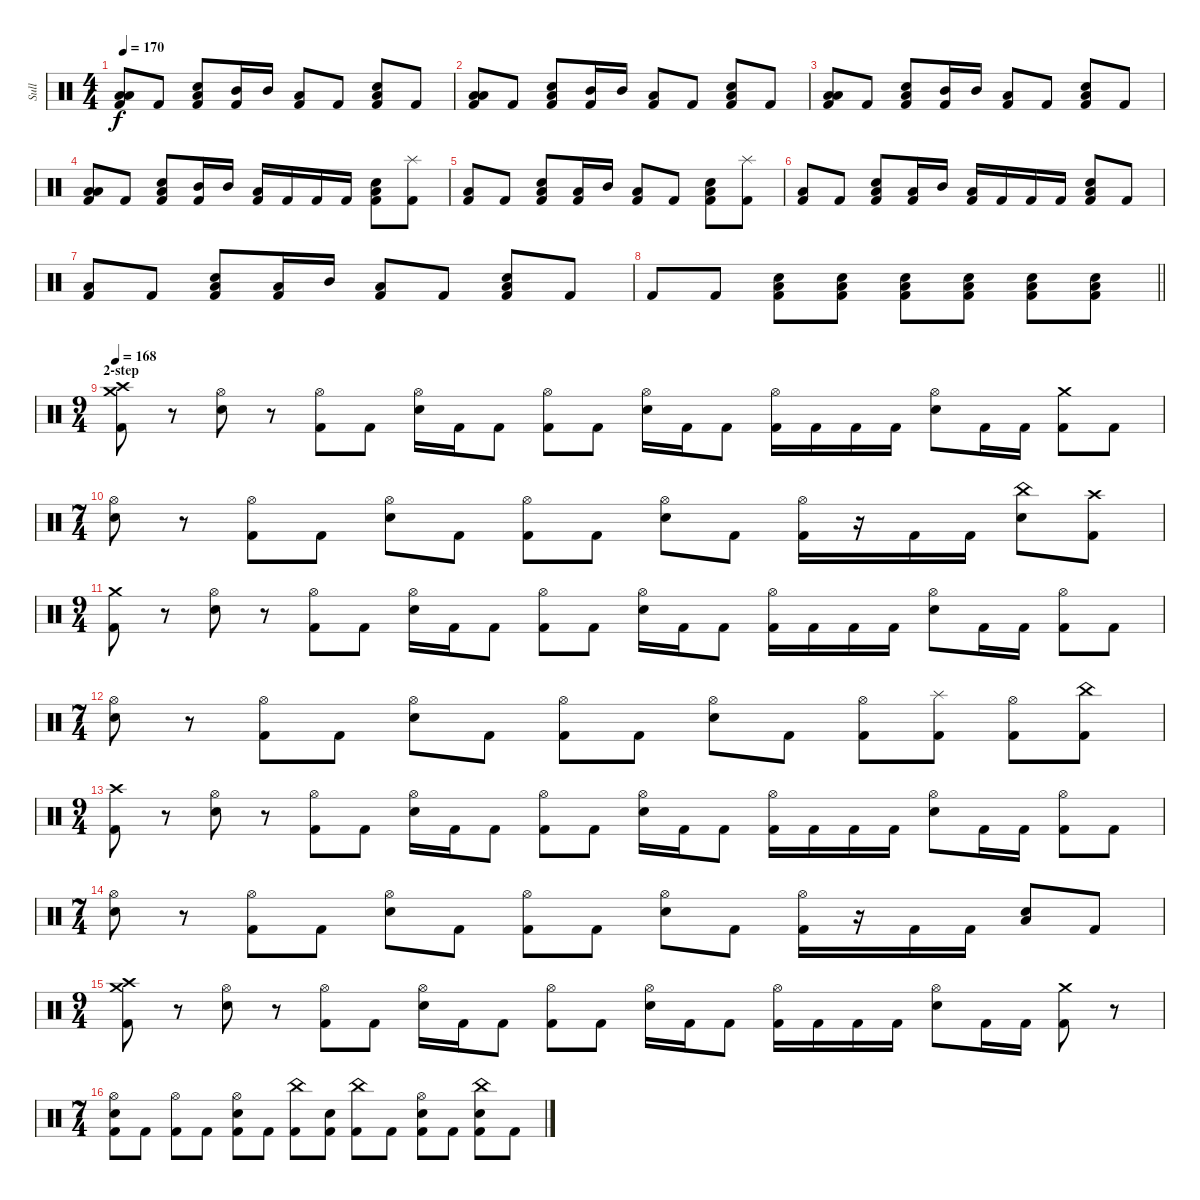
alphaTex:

\track ("Sull" "Sull") {instrument percussion}
\staff {score}
\articulation defaults
\ts (4 4)
\tempo 170
\clef neutral
\ks c
("Low Floor Tom (hit)" "Low Floor Tom (hit)" "Kick (hit) 2").8{dy f} "Kick (hit) 2".8 ("Electric Snare (hit)" "Low Floor Tom (hit)" "Kick (hit) 2").8 ("Mid Tom (hit)" "Kick (hit) 2").16 "Mid Tom (hit)".16 ("Low Floor Tom (hit)" "Kick (hit) 2").8 "Kick (hit) 2".8 ("Electric Snare (hit)" "Low Floor Tom (hit)" "Kick (hit) 2").8 "Kick (hit) 2".8 |
("Low Floor Tom (hit)" "Low Floor Tom (hit)" "Kick (hit) 2").8 "Kick (hit) 2".8 ("Electric Snare (hit)" "Low Floor Tom (hit)" "Kick (hit) 2").8 ("Mid Tom (hit)" "Kick (hit) 2").16 "Mid Tom (hit)".16 ("Low Floor Tom (hit)" "Kick (hit) 2").8 "Kick (hit) 2".8 ("Electric Snare (hit)" "Low Floor Tom (hit)" "Kick (hit) 2").8 "Kick (hit) 2".8 |
("Low Floor Tom (hit)" "Low Floor Tom (hit)" "Kick (hit) 2").8 "Kick (hit) 2".8 ("Electric Snare (hit)" "Low Floor Tom (hit)" "Kick (hit) 2").8 ("Mid Tom (hit)" "Kick (hit) 2").16 "Mid Tom (hit)".16 ("Low Floor Tom (hit)" "Kick (hit) 2").8 "Kick (hit) 2".8 ("Electric Snare (hit)" "Low Floor Tom (hit)" "Kick (hit) 2").8 "Kick (hit) 2".8 |
("Low Floor Tom (hit)" "Low Floor Tom (hit)" "Kick (hit) 2").8 "Kick (hit) 2".8 ("Electric Snare (hit)" "Low Floor Tom (hit)" "Kick (hit) 2").8 ("Mid Tom (hit)" "Kick (hit) 2").16 "Mid Tom (hit)".16 ("Low Floor Tom (hit)" "Kick (hit) 2").16 "Kick (hit) 2".16 "Kick (hit) 2".16 "Kick (hit) 2".16 ("Electric Snare (hit)" "Low Floor Tom (hit)" "Kick (hit) 2").8 ("Splash (hit)" "Kick (hit) 2").8 |
("Low Floor Tom (hit)" "Kick (hit) 2").8 "Kick (hit) 2".8 ("Electric Snare (hit)" "Low Floor Tom (hit)" "Kick (hit) 2").8 ("Low Floor Tom (hit)" "Kick (hit) 2").16 "Mid Tom (hit)".16 ("Low Floor Tom (hit)" "Kick (hit) 2").8 "Kick (hit) 2".8 ("Electric Snare (hit)" "Low Floor Tom (hit)" "Kick (hit) 2").8 ("Splash (hit)" "Kick (hit) 2").8 |
("Low Floor Tom (hit)" "Kick (hit) 2").8 "Kick (hit) 2".8 ("Electric Snare (hit)" "Low Floor Tom (hit)" "Kick (hit) 2").8 ("Low Floor Tom (hit)" "Kick (hit) 2").16 "Mid Tom (hit)".16 ("Low Floor Tom (hit)" "Kick (hit) 2").16 "Kick (hit) 2".16 "Kick (hit) 2".16 "Kick (hit) 2".16 ("Electric Snare (hit)" "Low Floor Tom (hit)" "Kick (hit) 2").8 "Kick (hit) 2".8 |
("Low Floor Tom (hit)" "Kick (hit) 2").8 "Kick (hit) 2".8 ("Electric Snare (hit)" "Low Floor Tom (hit)" "Kick (hit) 2").8 ("Low Floor Tom (hit)" "Kick (hit) 2").16 "Mid Tom (hit)".16 ("Low Floor Tom (hit)" "Kick (hit) 2").8 "Kick (hit) 2".8 ("Electric Snare (hit)" "Low Floor Tom (hit)" "Kick (hit) 2").8 "Kick (hit) 2".8 |
\barLineRight lightlight "Kick (hit) 2".8 "Kick (hit) 2".8
("Electric Snare (hit)" "Low Floor Tom (hit)" "Kick (hit) 2").8 ("Electric Snare (hit)" "Low Floor Tom (hit)" "Kick (hit) 2").8 ("Electric Snare (hit)" "Low Floor Tom (hit)" "Kick (hit) 2").8 ("Electric Snare (hit)" "Low Floor Tom (hit)" "Kick (hit) 2").8 ("Electric Snare (hit)" "Low Floor Tom (hit)" "Kick (hit) 2").8 ("Electric Snare (hit)" "Low Floor Tom (hit)" "Kick (hit) 2").8 |
\ts (9 4)
\section ("" "2-step")
\tempo 168
("Crash medium (hit)" "Crash high (hit)" "Kick (hit) 2").8 r.8 ("Hi-Hat (open)" "Electric Snare (hit)").8 r.8 ("Hi-Hat (open)" "Kick (hit) 2").8 "Kick (hit) 2".8 ("Hi-Hat (open)" "Electric Snare (hit)").16 "Kick (hit) 2".16 "Kick (hit) 2".8 ("Hi-Hat (open)" "Kick (hit) 2").8 "Kick (hit) 2".8 ("Hi-Hat (open)" "Electric Snare (hit)").16 "Kick (hit) 2".16 "Kick (hit) 2".8 ("Hi-Hat (open)" "Kick (hit) 2").16 "Kick (hit) 2".16 "Kick (hit) 2".16 "Kick (hit) 2".16 ("Hi-Hat (open)" "Electric Snare (hit)").8 "Kick (hit) 2".16 "Kick (hit) 2".16 ("Crash medium (hit)" "Kick (hit) 2").8 "Kick (hit) 2".8 |
\ts (7 4)
("Hi-Hat (open)" "Electric Snare (hit)").8 r.8 ("Hi-Hat (open)" "Kick (hit) 2").8 "Kick (hit) 2".8 ("Hi-Hat (open)" "Electric Snare (hit)").8 "Kick (hit) 2".8 ("Hi-Hat (open)" "Kick (hit) 2").8 "Kick (hit) 2".8 ("Hi-Hat (open)" "Electric Snare (hit)").8 "Kick (hit) 2".8 ("Hi-Hat (open)" "Kick (hit) 2").16 r.16 "Kick (hit) 2".16 "Kick (hit) 2".16 ("China (hit)" "Electric Snare (hit)").8 ("Crash high (hit)" "Kick (hit) 2").8 |
\ts (9 4)
("Crash medium (hit)" "Kick (hit) 2").8 r.8 ("Hi-Hat (open)" "Electric Snare (hit)").8 r.8 ("Hi-Hat (open)" "Kick (hit) 2").8 "Kick (hit) 2".8 ("Hi-Hat (open)" "Electric Snare (hit)").16 "Kick (hit) 2".16 "Kick (hit) 2".8 ("Hi-Hat (open)" "Kick (hit) 2").8 "Kick (hit) 2".8 ("Hi-Hat (open)" "Electric Snare (hit)").16 "Kick (hit) 2".16 "Kick (hit) 2".8 ("Hi-Hat (open)" "Kick (hit) 2").16 "Kick (hit) 2".16 "Kick (hit) 2".16 "Kick (hit) 2".16 ("Hi-Hat (open)" "Electric Snare (hit)").8 "Kick (hit) 2".16 "Kick (hit) 2".16 ("Hi-Hat (open)" "Kick (hit) 2").8 "Kick (hit) 2".8 |
\ts (7 4)
("Hi-Hat (open)" "Electric Snare (hit)").8 r.8 ("Hi-Hat (open)" "Kick (hit) 2").8 "Kick (hit) 2".8 ("Hi-Hat (open)" "Electric Snare (hit)").8 "Kick (hit) 2".8 ("Hi-Hat (open)" "Kick (hit) 2").8 "Kick (hit) 2".8 ("Hi-Hat (open)" "Electric Snare (hit)").8 "Kick (hit) 2".8 ("Hi-Hat (open)" "Kick (hit) 2").8 ("Splash (hit)" "Kick (hit) 2").8 ("Hi-Hat (open)" "Kick (hit) 2").8 ("China (hit)" "Kick (hit) 2").8 |
\ts (9 4)
("Crash high (hit)" "Kick (hit) 2").8 r.8 ("Hi-Hat (open)" "Electric Snare (hit)").8 r.8 ("Hi-Hat (open)" "Kick (hit) 2").8 "Kick (hit) 2".8 ("Hi-Hat (open)" "Electric Snare (hit)").16 "Kick (hit) 2".16 "Kick (hit) 2".8 ("Hi-Hat (open)" "Kick (hit) 2").8 "Kick (hit) 2".8 ("Hi-Hat (open)" "Electric Snare (hit)").16 "Kick (hit) 2".16 "Kick (hit) 2".8 ("Hi-Hat (open)" "Kick (hit) 2").16 "Kick (hit) 2".16 "Kick (hit) 2".16 "Kick (hit) 2".16 ("Hi-Hat (open)" "Electric Snare (hit)").8 "Kick (hit) 2".16 "Kick (hit) 2".16 ("Hi-Hat (open)" "Kick (hit) 2").8 "Kick (hit) 2".8 |
\ts (7 4)
("Hi-Hat (open)" "Electric Snare (hit)").8 r.8 ("Hi-Hat (open)" "Kick (hit) 2").8 "Kick (hit) 2".8 ("Hi-Hat (open)" "Electric Snare (hit)").8 "Kick (hit) 2".8 ("Hi-Hat (open)" "Kick (hit) 2").8 "Kick (hit) 2".8 ("Hi-Hat (open)" "Electric Snare (hit)").8 "Kick (hit) 2".8 ("Hi-Hat (open)" "Kick (hit) 2").16 r.16 "Kick (hit) 2".16 "Kick (hit) 2".16 ("Electric Snare (hit)" "Low Floor Tom (hit)").8 "Kick (hit) 2".8 |
\ts (9 4)
("Crash high (hit)" "Crash medium (hit)" "Kick (hit) 2").8 r.8 ("Hi-Hat (open)" "Electric Snare (hit)").8 r.8 ("Hi-Hat (open)" "Kick (hit) 2").8 "Kick (hit) 2".8 ("Hi-Hat (open)" "Electric Snare (hit)").16 "Kick (hit) 2".16 "Kick (hit) 2".8 ("Hi-Hat (open)" "Kick (hit) 2").8 "Kick (hit) 2".8 ("Hi-Hat (open)" "Electric Snare (hit)").16 "Kick (hit) 2".16 "Kick (hit) 2".8 ("Hi-Hat (open)" "Kick (hit) 2").16 "Kick (hit) 2".16 "Kick (hit) 2".16 "Kick (hit) 2".16 ("Hi-Hat (open)" "Electric Snare (hit)").8 "Kick (hit) 2".16 "Kick (hit) 2".16 ("Crash medium (hit)" "Kick (hit) 2").8 r.8 |
\ts (7 4)
("Hi-Hat (open)" "Electric Snare (hit)" "Kick (hit) 2").8 "Kick (hit) 2".8 ("Hi-Hat (open)" "Kick (hit) 2").8 "Kick (hit) 2".8 ("Hi-Hat (open)" "Electric Snare (hit)" "Kick (hit) 2").8 "Kick (hit) 2".8 ("China (hit)" "Kick (hit) 2").8 ("Electric Snare (hit)" "Kick (hit) 2").8 ("China (hit)" "Kick (hit) 2").8 "Kick (hit) 2".8 ("Hi-Hat (open)" "Electric Snare (hit)" "Kick (hit) 2").8 "Kick (hit) 2".8 ("China (hit)" "Electric Snare (hit)" "Kick (hit) 2").8 "Kick (hit) 2".8
